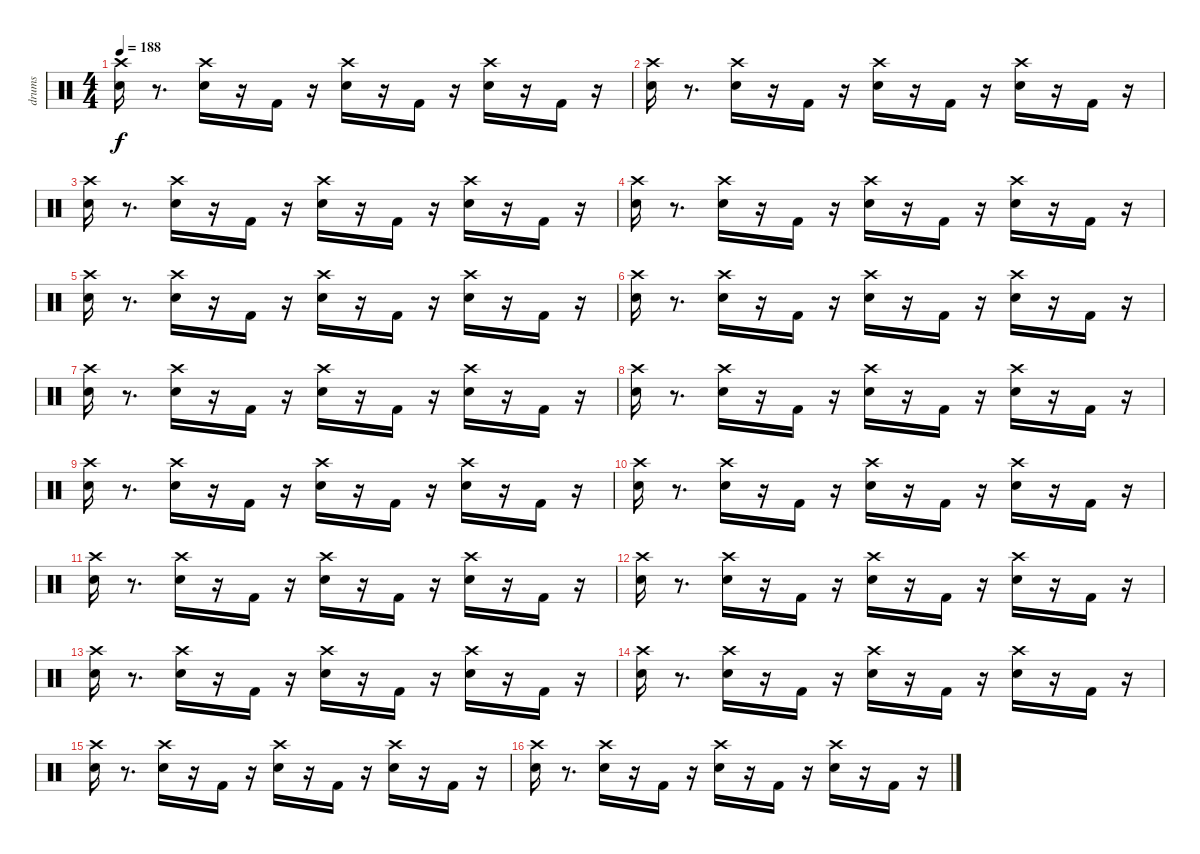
\track ("drums" "drums") {instrument percussion}
\staff {score}
\articulation defaults
\ts (4 4)
\tempo 188
\clef neutral
\ks c
("Snare (hit) 2" "Crash high (hit)").16{dy f} r.8{d} ("Snare (hit) 2" "Crash high (hit)").16 r.16 "Kick (hit) 2".16 r.16 ("Snare (hit) 2" "Crash high (hit)").16 r.16 "Kick (hit) 2".16 r.16 ("Snare (hit) 2" "Crash high (hit)").16 r.16 "Kick (hit) 2".16 r.16 |
("Snare (hit) 2" "Crash high (hit)").16 r.8{d} ("Snare (hit) 2" "Crash high (hit)").16 r.16 "Kick (hit) 2".16 r.16 ("Snare (hit) 2" "Crash high (hit)").16 r.16 "Kick (hit) 2".16 r.16 ("Snare (hit) 2" "Crash high (hit)").16 r.16 "Kick (hit) 2".16 r.16 |
("Snare (hit) 2" "Crash high (hit)").16 r.8{d} ("Snare (hit) 2" "Crash high (hit)").16 r.16 "Kick (hit) 2".16 r.16 ("Snare (hit) 2" "Crash high (hit)").16 r.16 "Kick (hit) 2".16 r.16 ("Snare (hit) 2" "Crash high (hit)").16 r.16 "Kick (hit) 2".16 r.16 |
("Snare (hit) 2" "Crash high (hit)").16 r.8{d} ("Snare (hit) 2" "Crash high (hit)").16 r.16 "Kick (hit) 2".16 r.16 ("Snare (hit) 2" "Crash high (hit)").16 r.16 "Kick (hit) 2".16 r.16 ("Snare (hit) 2" "Crash high (hit)").16 r.16 "Kick (hit) 2".16 r.16 |
("Snare (hit) 2" "Crash high (hit)").16 r.8{d} ("Snare (hit) 2" "Crash high (hit)").16 r.16 "Kick (hit) 2".16 r.16 ("Snare (hit) 2" "Crash high (hit)").16 r.16 "Kick (hit) 2".16 r.16 ("Snare (hit) 2" "Crash high (hit)").16 r.16 "Kick (hit) 2".16 r.16 |
("Snare (hit) 2" "Crash high (hit)").16 r.8{d} ("Snare (hit) 2" "Crash high (hit)").16 r.16 "Kick (hit) 2".16 r.16 ("Snare (hit) 2" "Crash high (hit)").16 r.16 "Kick (hit) 2".16 r.16 ("Snare (hit) 2" "Crash high (hit)").16 r.16 "Kick (hit) 2".16 r.16 |
("Snare (hit) 2" "Crash high (hit)").16 r.8{d} ("Snare (hit) 2" "Crash high (hit)").16 r.16 "Kick (hit) 2".16 r.16 ("Snare (hit) 2" "Crash high (hit)").16 r.16 "Kick (hit) 2".16 r.16 ("Snare (hit) 2" "Crash high (hit)").16 r.16 "Kick (hit) 2".16 r.16 |
("Snare (hit) 2" "Crash high (hit)").16 r.8{d} ("Snare (hit) 2" "Crash high (hit)").16 r.16 "Kick (hit) 2".16 r.16 ("Snare (hit) 2" "Crash high (hit)").16 r.16 "Kick (hit) 2".16 r.16 ("Snare (hit) 2" "Crash high (hit)").16 r.16 "Kick (hit) 2".16 r.16 |
("Snare (hit) 2" "Crash high (hit)").16 r.8{d} ("Snare (hit) 2" "Crash high (hit)").16 r.16 "Kick (hit) 2".16 r.16 ("Snare (hit) 2" "Crash high (hit)").16 r.16 "Kick (hit) 2".16 r.16 ("Snare (hit) 2" "Crash high (hit)").16 r.16 "Kick (hit) 2".16 r.16 |
("Snare (hit) 2" "Crash high (hit)").16 r.8{d} ("Snare (hit) 2" "Crash high (hit)").16 r.16 "Kick (hit) 2".16 r.16 ("Snare (hit) 2" "Crash high (hit)").16 r.16 "Kick (hit) 2".16 r.16 ("Snare (hit) 2" "Crash high (hit)").16 r.16 "Kick (hit) 2".16 r.16 |
("Snare (hit) 2" "Crash high (hit)").16 r.8{d} ("Snare (hit) 2" "Crash high (hit)").16 r.16 "Kick (hit) 2".16 r.16 ("Snare (hit) 2" "Crash high (hit)").16 r.16 "Kick (hit) 2".16 r.16 ("Snare (hit) 2" "Crash high (hit)").16 r.16 "Kick (hit) 2".16 r.16 |
("Snare (hit) 2" "Crash high (hit)").16 r.8{d} ("Snare (hit) 2" "Crash high (hit)").16 r.16 "Kick (hit) 2".16 r.16 ("Snare (hit) 2" "Crash high (hit)").16 r.16 "Kick (hit) 2".16 r.16 ("Snare (hit) 2" "Crash high (hit)").16 r.16 "Kick (hit) 2".16 r.16 |
("Snare (hit) 2" "Crash high (hit)").16 r.8{d} ("Snare (hit) 2" "Crash high (hit)").16 r.16 "Kick (hit) 2".16 r.16 ("Snare (hit) 2" "Crash high (hit)").16 r.16 "Kick (hit) 2".16 r.16 ("Snare (hit) 2" "Crash high (hit)").16 r.16 "Kick (hit) 2".16 r.16 |
("Snare (hit) 2" "Crash high (hit)").16 r.8{d} ("Snare (hit) 2" "Crash high (hit)").16 r.16 "Kick (hit) 2".16 r.16 ("Snare (hit) 2" "Crash high (hit)").16 r.16 "Kick (hit) 2".16 r.16 ("Snare (hit) 2" "Crash high (hit)").16 r.16 "Kick (hit) 2".16 r.16 |
("Snare (hit) 2" "Crash high (hit)").16 r.8{d} ("Snare (hit) 2" "Crash high (hit)").16 r.16 "Kick (hit) 2".16 r.16 ("Snare (hit) 2" "Crash high (hit)").16 r.16 "Kick (hit) 2".16 r.16 ("Snare (hit) 2" "Crash high (hit)").16 r.16 "Kick (hit) 2".16 r.16 |
("Snare (hit) 2" "Crash high (hit)").16 r.8{d} ("Snare (hit) 2" "Crash high (hit)").16 r.16 "Kick (hit) 2".16 r.16 ("Snare (hit) 2" "Crash high (hit)").16 r.16 "Kick (hit) 2".16 r.16 ("Snare (hit) 2" "Crash high (hit)").16 r.16 "Kick (hit) 2".16 r.16
